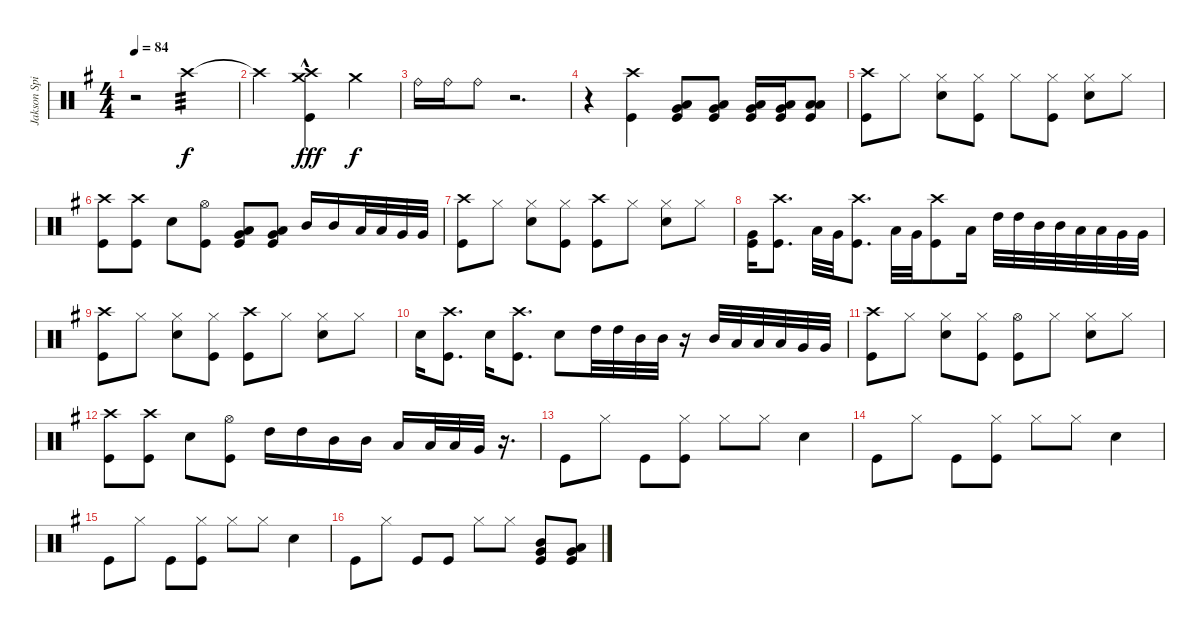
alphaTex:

\track ("Jakson Spires Drums" "Jakson Spi") {instrument percussion}
\staff {score}
\articulation defaults
\ts (4 4)
\tempo 84
\clef neutral
\ks g
r.2{dy f} "Crash high (hit)".2{tp 3 volume 16} |
"Crash high (hit)"{t}.2 ("Crash high (hit)"{hac} "Crash medium (hit)" "Kick (hit)").4{dy fff} "Crash medium (hit)".4{dy f} |
"Ride (bell)".16 "Ride (bell)".16 "Ride (bell)".8 r.2{d} |
r.4 ("Crash high (hit)" "Kick (hit)").4 ("Low Tom (hit)" "Very Low Tom (hit)" "Kick (hit)").8 ("Low Tom (hit)" "Very Low Tom (hit)" "Kick (hit)").8 ("Low Tom (hit)" "Very Low Tom (hit)" "Kick (hit)").16 ("Low Tom (hit)" "Very Low Tom (hit)" "Kick (hit)").16 ("Low Tom (hit)" "Low Tom (hit)" "Kick (hit)").8 |
("Crash high (hit)" "Kick (hit)").8 "Hi-Hat (closed)".8 ("Hi-Hat (closed)" "Snare (hit) 2").8 ("Hi-Hat (closed)" "Kick (hit)").8 "Hi-Hat (closed)".8 ("Hi-Hat (closed)" "Kick (hit)").8 ("Hi-Hat (closed)" "Snare (hit) 2").8 "Hi-Hat (closed)".8 |
("Crash high (hit)" "Kick (hit)").8 ("Crash high (hit)" "Kick (hit)").8 "Snare (hit) 2".8 ("Hi-Hat (open)" "Kick (hit)").8 ("Low Tom (hit)" "Very Low Tom (hit)" "Kick (hit)").8 ("Low Tom (hit)" "Very Low Tom (hit)" "Kick (hit)").8 "Mid Tom (hit)".16 "Mid Tom (hit)".16 "Low Tom (hit)".32 "Low Tom (hit)".32 "Very Low Tom (hit)".32 "Very Low Tom (hit)".32 |
("Crash high (hit)" "Kick (hit)").8 "Hi-Hat (closed)".8 ("Hi-Hat (closed)" "Snare (hit) 2").8 ("Hi-Hat (closed)" "Kick (hit)").8 ("Crash high (hit)" "Kick (hit)").8 "Hi-Hat (closed)".8 ("Hi-Hat (closed)" "Snare (hit) 2").8 "Hi-Hat (closed)".8 |
("Very Low Tom (hit)" "Kick (hit)").16 ("Crash high (hit)" "Kick (hit)").8{d} "Low Tom (hit)".32 "Very Low Tom (hit)".32 ("Crash high (hit)" "Kick (hit)").8{d} "Low Tom (hit)".32 "Very Low Tom (hit)".32 ("Crash high (hit)" "Kick (hit)").8 "Low Tom (hit)".16 "High Tom (hit)".32 "High Tom (hit)".32 "Mid Tom (hit)".32 "Mid Tom (hit)".32 "Low Tom (hit)".32 "Low Tom (hit)".32 "Very Low Tom (hit)".32 "Very Low Tom (hit)".32 |
("Crash high (hit)" "Kick (hit)").8 "Hi-Hat (closed)".8 ("Hi-Hat (closed)" "Snare (hit) 2").8 ("Hi-Hat (closed)" "Kick (hit)").8 ("Crash high (hit)" "Kick (hit)").8 "Hi-Hat (closed)".8 ("Hi-Hat (closed)" "Snare (hit) 2").8 "Hi-Hat (closed)".8 |
"Snare (hit) 2".16 ("Crash high (hit)" "Kick (hit)").8{d} "Snare (hit) 2".16 ("Crash high (hit)" "Kick (hit)").8{d} "Snare (hit) 2".8 "High Tom (hit)".32 "High Tom (hit)".32 "Mid Tom (hit)".32 "Mid Tom (hit)".32 r.16 "Mid Tom (hit)".32 "Low Tom (hit)".32 "Low Tom (hit)".32 "Low Tom (hit)".32 "Very Low Tom (hit)".32 "Very Low Tom (hit)".32 |
("Crash high (hit)" "Kick (hit)").8 "Hi-Hat (closed)".8 ("Hi-Hat (closed)" "Snare (hit) 2").8 ("Hi-Hat (closed)" "Kick (hit)").8 ("Hi-Hat (open)" "Kick (hit)").8 "Hi-Hat (closed)".8 ("Hi-Hat (closed)" "Snare (hit) 2").8 "Hi-Hat (closed)".8 |
("Crash high (hit)" "Kick (hit)").8 ("Crash high (hit)" "Kick (hit)").8 "Snare (hit) 2".8 ("Hi-Hat (open)" "Kick (hit)").8 "High Tom (hit)".16 "High Tom (hit)".16 "Mid Tom (hit)".16 "Mid Tom (hit)".16 "Low Tom (hit)".16 "Low Tom (hit)".32 "Low Tom (hit)".32 "Very Low Tom (hit)".32 r.16{d} |
"Kick (hit)".8 "Hi-Hat (closed)".8 "Kick (hit)".8 ("Hi-Hat (closed)" "Kick (hit)").8 "Hi-Hat (closed)".8 "Hi-Hat (closed)".8 "Snare (hit) 2".4 |
"Kick (hit)".8 "Hi-Hat (closed)".8 "Kick (hit)".8 ("Hi-Hat (closed)" "Kick (hit)").8 "Hi-Hat (closed)".8 "Hi-Hat (closed)".8 "Snare (hit) 2".4 |
"Kick (hit)".8 "Hi-Hat (closed)".8 "Kick (hit)".8 ("Hi-Hat (closed)" "Kick (hit)").8 "Hi-Hat (closed)".8 "Hi-Hat (closed)".8 "Snare (hit) 2".4 |
"Kick (hit)".8 "Hi-Hat (closed)".8 "Kick (hit)".8 "Kick (hit)".8 "Hi-Hat (closed)".8 "Hi-Hat (closed)".8 ("Mid Tom (hit)" "Very Low Tom (hit)" "Kick (hit)").8 ("Low Tom (hit)" "Very Low Tom (hit)" "Kick (hit)").8
